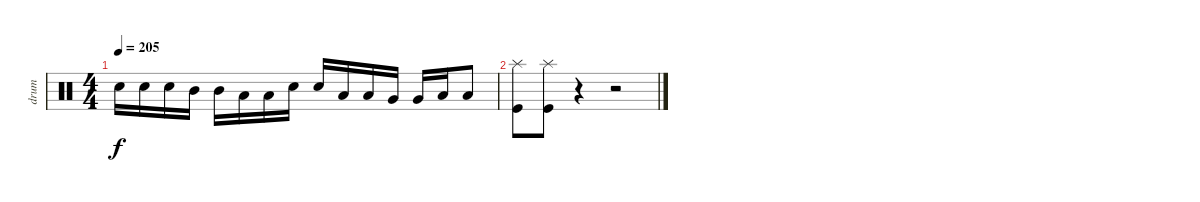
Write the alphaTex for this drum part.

\track ("drum" "drum") {instrument percussion}
\staff {score}
\articulation defaults
\ts (4 4)
\tempo 205
\clef neutral
\ks c "Electric Snare (hit)".16{dy f} "Electric Snare (hit)".16 "Electric Snare (hit)".16 "Mid Tom (hit)".16 "Mid Tom (hit)".16 "Low Tom (hit)".16 "Low Tom (hit)".16 "Electric Snare (hit)".16 "Electric Snare (hit)".16 "Low Tom (hit)".16 "Low Tom (hit)".16 "Very Low Tom (hit)".16 "Very Low Tom (hit)".16 "Low Floor Tom (hit)".16 "Low Floor Tom (hit)".8
|
("Kick (hit)" "Splash (hit)").8 ("Kick (hit)" "Splash (hit)").8 r.4 r.2
